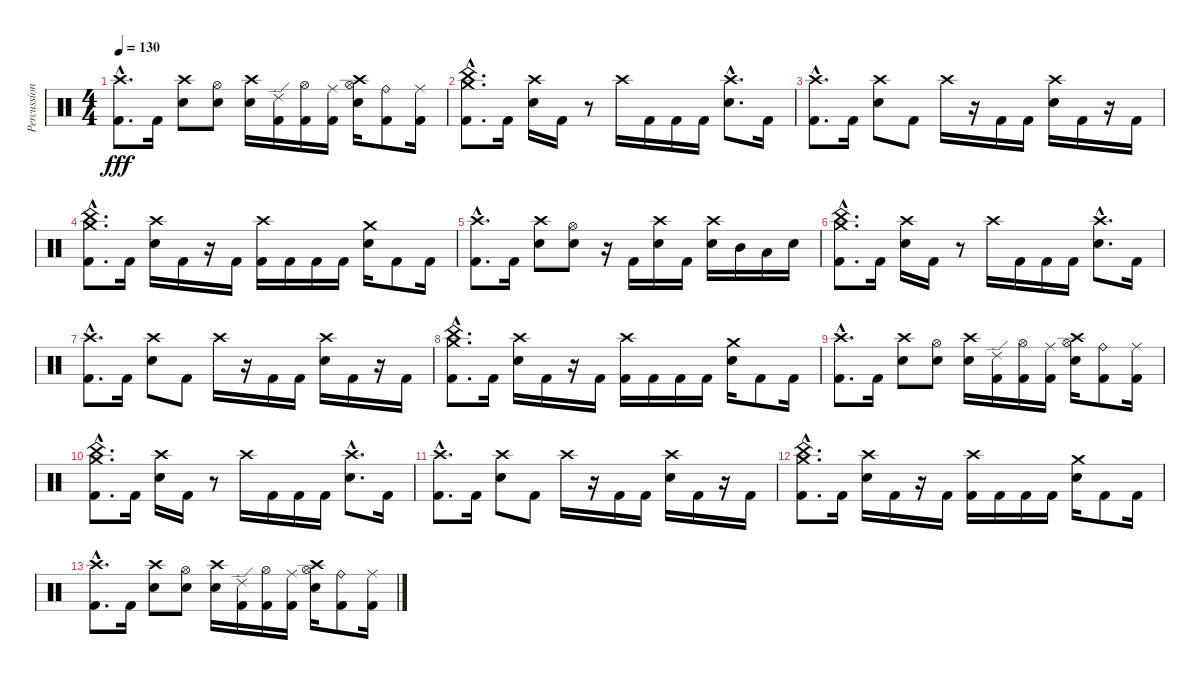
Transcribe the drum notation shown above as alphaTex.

\track ("Percussion" "Percussion") {instrument percussion}
\staff {score}
\articulation defaults
\ts (4 4)
\tempo 130
\clef neutral
\ks c
("Crash high (hit)"{hac} "Kick (hit) 2"{hac}).8{d dy fff} "Kick (hit) 2".16 ("Crash high (hit)" "Electric Snare (hit)").8 ("Hi-Hat (open)" "Electric Snare (hit)").8 ("Crash high (hit)" "Electric Snare (hit)").16 ("Ride (edge) 2" "Kick (hit) 2").16 ("Hi-Hat (open)" "Kick (hit) 2").16 ("Ride (middle)" "Kick (hit) 2").16 ("Crash high (hit)" "Hi-Hat (open)" "Electric Snare (hit)").16 ("Ride (bell)" "Kick (hit) 2").8 ("Ride (middle)" "Kick (hit) 2").16 |
("Crash medium (hit)"{hac} "China (hit)"{hac} "Kick (hit) 2"{hac}).8{d} "Kick (hit) 2".16 ("Crash high (hit)" "Electric Snare (hit)").16 "Kick (hit) 2".16 r.8 "Crash high (hit)".16 "Kick (hit) 2".16 "Kick (hit) 2".16 "Kick (hit) 2".16 ("Crash high (hit)"{hac} "Electric Snare (hit)"{hac}).8{d} "Kick (hit) 2".16 |
("Crash high (hit)"{hac} "Kick (hit) 2"{hac}).8{d} "Kick (hit) 2".16 ("Crash high (hit)" "Electric Snare (hit)").8 "Kick (hit) 2".8 "Crash high (hit)".16 r.16 "Kick (hit) 2".16 "Kick (hit) 2".16 ("Crash high (hit)" "Electric Snare (hit)").16 "Kick (hit) 2".16 r.16 "Kick (hit) 2".16 |
("Crash medium (hit)"{hac} "China (hit)"{hac} "Kick (hit) 2"{hac}).8{d} "Kick (hit) 2".16 ("Crash high (hit)" "Electric Snare (hit)").16 "Kick (hit) 2".16 r.16 "Kick (hit) 2".16 ("Crash high (hit)" "Kick (hit) 2").16 "Kick (hit) 2".16 "Kick (hit) 2".16 "Kick (hit) 2".16 ("Crash medium (hit)" "Electric Snare (hit)").16 "Kick (hit) 2".8 "Kick (hit) 2".16 |
("Crash high (hit)"{hac} "Kick (hit) 2"{hac}).8{d} "Kick (hit) 2".16 ("Crash high (hit)" "Electric Snare (hit)").8 ("Hi-Hat (open)" "Electric Snare (hit)").8 r.16 "Kick (hit) 2".16 ("Crash high (hit)" "Electric Snare (hit)").16 "Kick (hit) 2".16 ("Crash high (hit)" "Electric Snare (hit)").16 "Mid Tom (hit)".16 "Low Tom (hit)".16 "Electric Snare (hit)".16 |
("Crash medium (hit)"{hac} "China (hit)"{hac} "Kick (hit) 2"{hac}).8{d} "Kick (hit) 2".16 ("Crash high (hit)" "Electric Snare (hit)").16 "Kick (hit) 2".16 r.8 "Crash high (hit)".16 "Kick (hit) 2".16 "Kick (hit) 2".16 "Kick (hit) 2".16 ("Crash high (hit)"{hac} "Electric Snare (hit)"{hac}).8{d} "Kick (hit) 2".16 |
("Crash high (hit)"{hac} "Kick (hit) 2"{hac}).8{d} "Kick (hit) 2".16 ("Crash high (hit)" "Electric Snare (hit)").8 "Kick (hit) 2".8 "Crash high (hit)".16 r.16 "Kick (hit) 2".16 "Kick (hit) 2".16 ("Crash high (hit)" "Electric Snare (hit)").16 "Kick (hit) 2".16 r.16 "Kick (hit) 2".16 |
("Crash medium (hit)"{hac} "China (hit)"{hac} "Kick (hit) 2"{hac}).8{d} "Kick (hit) 2".16 ("Crash high (hit)" "Electric Snare (hit)").16 "Kick (hit) 2".16 r.16 "Kick (hit) 2".16 ("Crash high (hit)" "Kick (hit) 2").16 "Kick (hit) 2".16 "Kick (hit) 2".16 "Kick (hit) 2".16 ("Crash medium (hit)" "Electric Snare (hit)").16 "Kick (hit) 2".8 "Kick (hit) 2".16 |
("Crash high (hit)"{hac} "Kick (hit) 2"{hac}).8{d} "Kick (hit) 2".16 ("Crash high (hit)" "Electric Snare (hit)").8 ("Hi-Hat (open)" "Electric Snare (hit)").8 ("Crash high (hit)" "Electric Snare (hit)").16 ("Ride (edge) 2" "Kick (hit) 2").16 ("Hi-Hat (open)" "Kick (hit) 2").16 ("Ride (middle)" "Kick (hit) 2").16 ("Crash high (hit)" "Hi-Hat (open)" "Electric Snare (hit)").16 ("Ride (bell)" "Kick (hit) 2").8 ("Ride (middle)" "Kick (hit) 2").16 |
("Crash medium (hit)"{hac} "China (hit)"{hac} "Kick (hit) 2"{hac}).8{d} "Kick (hit) 2".16 ("Crash high (hit)" "Electric Snare (hit)").16 "Kick (hit) 2".16 r.8 "Crash high (hit)".16 "Kick (hit) 2".16 "Kick (hit) 2".16 "Kick (hit) 2".16 ("Crash high (hit)"{hac} "Electric Snare (hit)"{hac}).8{d} "Kick (hit) 2".16 |
("Crash high (hit)"{hac} "Kick (hit) 2"{hac}).8{d} "Kick (hit) 2".16 ("Crash high (hit)" "Electric Snare (hit)").8 "Kick (hit) 2".8 "Crash high (hit)".16 r.16 "Kick (hit) 2".16 "Kick (hit) 2".16 ("Crash high (hit)" "Electric Snare (hit)").16 "Kick (hit) 2".16 r.16 "Kick (hit) 2".16 |
("Crash medium (hit)"{hac} "China (hit)"{hac} "Kick (hit) 2"{hac}).8{d} "Kick (hit) 2".16 ("Crash high (hit)" "Electric Snare (hit)").16 "Kick (hit) 2".16 r.16 "Kick (hit) 2".16 ("Crash high (hit)" "Kick (hit) 2").16 "Kick (hit) 2".16 "Kick (hit) 2".16 "Kick (hit) 2".16 ("Crash medium (hit)" "Electric Snare (hit)").16 "Kick (hit) 2".8 "Kick (hit) 2".16 |
("Crash high (hit)"{hac} "Kick (hit) 2"{hac}).8{d} "Kick (hit) 2".16 ("Crash high (hit)" "Electric Snare (hit)").8 ("Hi-Hat (open)" "Electric Snare (hit)").8 ("Crash high (hit)" "Electric Snare (hit)").16 ("Ride (edge) 2" "Kick (hit) 2").16 ("Hi-Hat (open)" "Kick (hit) 2").16 ("Ride (middle)" "Kick (hit) 2").16 ("Crash high (hit)" "Hi-Hat (open)" "Electric Snare (hit)").16 ("Ride (bell)" "Kick (hit) 2").8 ("Ride (middle)" "Kick (hit) 2").16
